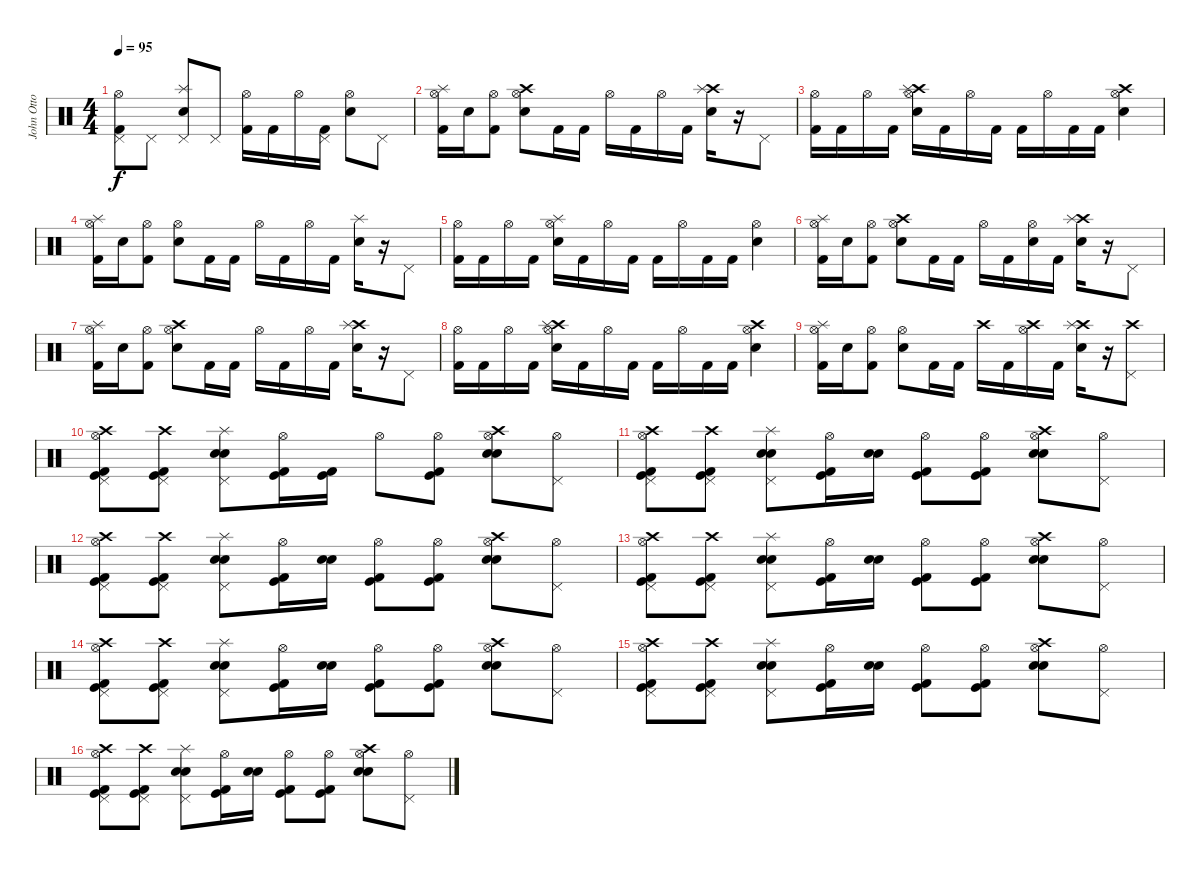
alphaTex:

\track ("John Otto (Drums)" "John Otto ") {instrument percussion}
\staff {score}
\articulation defaults
\ts (4 4)
\tempo 95
\clef neutral
\ks c
("Hi-Hat (open)" "Pedal Hi-Hat (hit)" "Kick (hit) 2").8{dy f} "Pedal Hi-Hat (hit)".8 ("Splash (hit)" "Pedal Hi-Hat (hit)" "Electric Snare (hit)").8 "Pedal Hi-Hat (hit)".8 ("Hi-Hat (open)" "Kick (hit) 2").16 "Kick (hit) 2".16 "Hi-Hat (open)".16 ("Pedal Hi-Hat (hit)" "Kick (hit) 2").16 ("Hi-Hat (open)" "Electric Snare (hit)").8 "Pedal Hi-Hat (hit)".8 |
("Splash (hit)" "Hi-Hat (open)" "Kick (hit) 2").16 "Electric Snare (hit)".16 ("Hi-Hat (open)" "Kick (hit) 2").8 ("Crash high (hit)" "Hi-Hat (open)" "Electric Snare (hit)").8 "Kick (hit) 2".16 "Kick (hit) 2".16 "Hi-Hat (open)".16 "Kick (hit) 2".16 "Hi-Hat (open)".16 "Kick (hit) 2".16 ("Crash high (hit)" "Splash (hit)" "Electric Snare (hit)").16 r.16 "Pedal Hi-Hat (hit)".8 |
("Hi-Hat (open)" "Kick (hit) 2").16 "Kick (hit) 2".16 "Hi-Hat (open)".16 "Kick (hit) 2".16 ("Crash high (hit)" "Splash (hit)" "Hi-Hat (open)" "Electric Snare (hit)").16 "Kick (hit) 2".16 "Hi-Hat (open)".16 "Kick (hit) 2".16 "Kick (hit) 2".16 "Hi-Hat (open)".16 "Kick (hit) 2".16 "Kick (hit) 2".16 ("Crash high (hit)" "Hi-Hat (open)" "Electric Snare (hit)").4 |
("Splash (hit)" "Hi-Hat (open)" "Kick (hit) 2").16 "Electric Snare (hit)".16 ("Hi-Hat (open)" "Kick (hit) 2").8 ("Hi-Hat (open)" "Electric Snare (hit)").8 "Kick (hit) 2".16 "Kick (hit) 2".16 "Hi-Hat (open)".16 "Kick (hit) 2".16 "Hi-Hat (open)".16 "Kick (hit) 2".16 ("Splash (hit)" "Electric Snare (hit)").16 r.16 "Pedal Hi-Hat (hit)".8 |
("Hi-Hat (open)" "Kick (hit) 2").16 "Kick (hit) 2".16 "Hi-Hat (open)".16 "Kick (hit) 2".16 ("Splash (hit)" "Hi-Hat (open)" "Electric Snare (hit)").16 "Kick (hit) 2".16 "Hi-Hat (open)".16 "Kick (hit) 2".16 "Kick (hit) 2".16 "Hi-Hat (open)".16 "Kick (hit) 2".16 "Kick (hit) 2".16 ("Hi-Hat (open)" "Electric Snare (hit)").4 |
("Splash (hit)" "Hi-Hat (open)" "Kick (hit) 2").16 "Electric Snare (hit)".16 ("Hi-Hat (open)" "Kick (hit) 2").8 ("Crash high (hit)" "Hi-Hat (open)" "Electric Snare (hit)").8 "Kick (hit) 2".16 "Kick (hit) 2".16 "Hi-Hat (open)".16 "Kick (hit) 2".16 ("Hi-Hat (open)" "Electric Snare (hit)").16 "Kick (hit) 2".16 ("Crash high (hit)" "Splash (hit)" "Electric Snare (hit)").16 r.16 "Pedal Hi-Hat (hit)".8 |
("Splash (hit)" "Hi-Hat (open)" "Kick (hit) 2").16 "Electric Snare (hit)".16 ("Hi-Hat (open)" "Kick (hit) 2").8 ("Crash high (hit)" "Hi-Hat (open)" "Electric Snare (hit)").8 "Kick (hit) 2".16 "Kick (hit) 2".16 "Hi-Hat (open)".16 "Kick (hit) 2".16 "Hi-Hat (open)".16 "Kick (hit) 2".16 ("Crash high (hit)" "Splash (hit)" "Electric Snare (hit)").16 r.16 "Pedal Hi-Hat (hit)".8 |
("Hi-Hat (open)" "Kick (hit) 2").16 "Kick (hit) 2".16 "Hi-Hat (open)".16 "Kick (hit) 2".16 ("Crash high (hit)" "Splash (hit)" "Hi-Hat (open)" "Electric Snare (hit)").16 "Kick (hit) 2".16 "Hi-Hat (open)".16 "Kick (hit) 2".16 "Kick (hit) 2".16 "Hi-Hat (open)".16 "Kick (hit) 2".16 "Kick (hit) 2".16 ("Crash high (hit)" "Hi-Hat (open)" "Electric Snare (hit)").4 |
("Splash (hit)" "Hi-Hat (open)" "Kick (hit) 2").16 "Electric Snare (hit)".16 ("Hi-Hat (open)" "Kick (hit) 2").8 ("Hi-Hat (open)" "Electric Snare (hit)").8 "Kick (hit) 2".16 "Kick (hit) 2".16 "Crash high (hit)".16 "Kick (hit) 2".16 ("Crash high (hit)" "Hi-Hat (open)").16 "Kick (hit) 2".16 ("Crash high (hit)" "Splash (hit)" "Electric Snare (hit)").16 r.16 ("Crash high (hit)" "Pedal Hi-Hat (hit)").8 |
("Kick (hit)" "Crash high (hit)" "Hi-Hat (open)" "Pedal Hi-Hat (hit)" "Kick (hit) 2").8 ("Kick (hit)" "Crash high (hit)" "Pedal Hi-Hat (hit)" "Kick (hit) 2").8 ("Electric Snare (hit)" "Splash (hit)" "Pedal Hi-Hat (hit)" "Electric Snare (hit)").8 ("Kick (hit)" "Hi-Hat (open)" "Kick (hit) 2").16 ("Kick (hit)" "Kick (hit) 2").16 "Hi-Hat (open)".8 ("Kick (hit)" "Hi-Hat (open)" "Kick (hit) 2").8 ("Electric Snare (hit)" "Crash high (hit)" "Hi-Hat (open)" "Electric Snare (hit)").8 ("Hi-Hat (open)" "Pedal Hi-Hat (hit)").8 |
("Kick (hit)" "Crash high (hit)" "Hi-Hat (open)" "Pedal Hi-Hat (hit)" "Kick (hit) 2").8 ("Kick (hit)" "Crash high (hit)" "Pedal Hi-Hat (hit)" "Kick (hit) 2").8 ("Electric Snare (hit)" "Splash (hit)" "Pedal Hi-Hat (hit)" "Electric Snare (hit)").8 ("Kick (hit)" "Hi-Hat (open)" "Kick (hit) 2").16 ("Electric Snare (hit)" "Electric Snare (hit)").16 ("Kick (hit)" "Hi-Hat (open)" "Kick (hit) 2").8 ("Kick (hit)" "Hi-Hat (open)" "Kick (hit) 2").8 ("Electric Snare (hit)" "Crash high (hit)" "Hi-Hat (open)" "Electric Snare (hit)").8 ("Hi-Hat (open)" "Pedal Hi-Hat (hit)").8 |
("Kick (hit)" "Crash high (hit)" "Hi-Hat (open)" "Pedal Hi-Hat (hit)" "Kick (hit) 2").8 ("Kick (hit)" "Crash high (hit)" "Pedal Hi-Hat (hit)" "Kick (hit) 2").8 ("Electric Snare (hit)" "Splash (hit)" "Pedal Hi-Hat (hit)" "Electric Snare (hit)").8 ("Kick (hit)" "Hi-Hat (open)" "Kick (hit) 2").16 ("Electric Snare (hit)" "Electric Snare (hit)").16 ("Kick (hit)" "Hi-Hat (open)" "Kick (hit) 2").8 ("Kick (hit)" "Hi-Hat (open)" "Kick (hit) 2").8 ("Electric Snare (hit)" "Crash high (hit)" "Hi-Hat (open)" "Electric Snare (hit)").8 ("Hi-Hat (open)" "Pedal Hi-Hat (hit)").8 |
("Kick (hit)" "Crash high (hit)" "Hi-Hat (open)" "Pedal Hi-Hat (hit)" "Kick (hit) 2").8 ("Kick (hit)" "Crash high (hit)" "Pedal Hi-Hat (hit)" "Kick (hit) 2").8 ("Electric Snare (hit)" "Splash (hit)" "Pedal Hi-Hat (hit)" "Electric Snare (hit)").8 ("Kick (hit)" "Hi-Hat (open)" "Kick (hit) 2").16 ("Electric Snare (hit)" "Electric Snare (hit)").16 ("Kick (hit)" "Hi-Hat (open)" "Kick (hit) 2").8 ("Kick (hit)" "Hi-Hat (open)" "Kick (hit) 2").8 ("Electric Snare (hit)" "Crash high (hit)" "Hi-Hat (open)" "Electric Snare (hit)").8 ("Hi-Hat (open)" "Pedal Hi-Hat (hit)").8 |
("Kick (hit)" "Crash high (hit)" "Hi-Hat (open)" "Pedal Hi-Hat (hit)" "Kick (hit) 2").8 ("Kick (hit)" "Crash high (hit)" "Pedal Hi-Hat (hit)" "Kick (hit) 2").8 ("Electric Snare (hit)" "Splash (hit)" "Pedal Hi-Hat (hit)" "Electric Snare (hit)").8 ("Kick (hit)" "Hi-Hat (open)" "Kick (hit) 2").16 ("Electric Snare (hit)" "Electric Snare (hit)").16 ("Kick (hit)" "Hi-Hat (open)" "Kick (hit) 2").8 ("Kick (hit)" "Hi-Hat (open)" "Kick (hit) 2").8 ("Electric Snare (hit)" "Crash high (hit)" "Hi-Hat (open)" "Electric Snare (hit)").8 ("Hi-Hat (open)" "Pedal Hi-Hat (hit)").8 |
("Kick (hit)" "Crash high (hit)" "Hi-Hat (open)" "Pedal Hi-Hat (hit)" "Kick (hit) 2").8 ("Kick (hit)" "Crash high (hit)" "Pedal Hi-Hat (hit)" "Kick (hit) 2").8 ("Electric Snare (hit)" "Splash (hit)" "Pedal Hi-Hat (hit)" "Electric Snare (hit)").8 ("Kick (hit)" "Hi-Hat (open)" "Kick (hit) 2").16 ("Electric Snare (hit)" "Electric Snare (hit)").16 ("Kick (hit)" "Hi-Hat (open)" "Kick (hit) 2").8 ("Kick (hit)" "Hi-Hat (open)" "Kick (hit) 2").8 ("Electric Snare (hit)" "Crash high (hit)" "Hi-Hat (open)" "Electric Snare (hit)").8 ("Hi-Hat (open)" "Pedal Hi-Hat (hit)").8 |
("Kick (hit)" "Crash high (hit)" "Hi-Hat (open)" "Pedal Hi-Hat (hit)" "Kick (hit) 2").8 ("Kick (hit)" "Crash high (hit)" "Pedal Hi-Hat (hit)" "Kick (hit) 2").8 ("Electric Snare (hit)" "Splash (hit)" "Pedal Hi-Hat (hit)" "Electric Snare (hit)").8 ("Kick (hit)" "Hi-Hat (open)" "Kick (hit) 2").16 ("Electric Snare (hit)" "Electric Snare (hit)").16 ("Kick (hit)" "Hi-Hat (open)" "Kick (hit) 2").8 ("Kick (hit)" "Hi-Hat (open)" "Kick (hit) 2").8 ("Electric Snare (hit)" "Crash high (hit)" "Hi-Hat (open)" "Electric Snare (hit)").8 ("Hi-Hat (open)" "Pedal Hi-Hat (hit)").8
